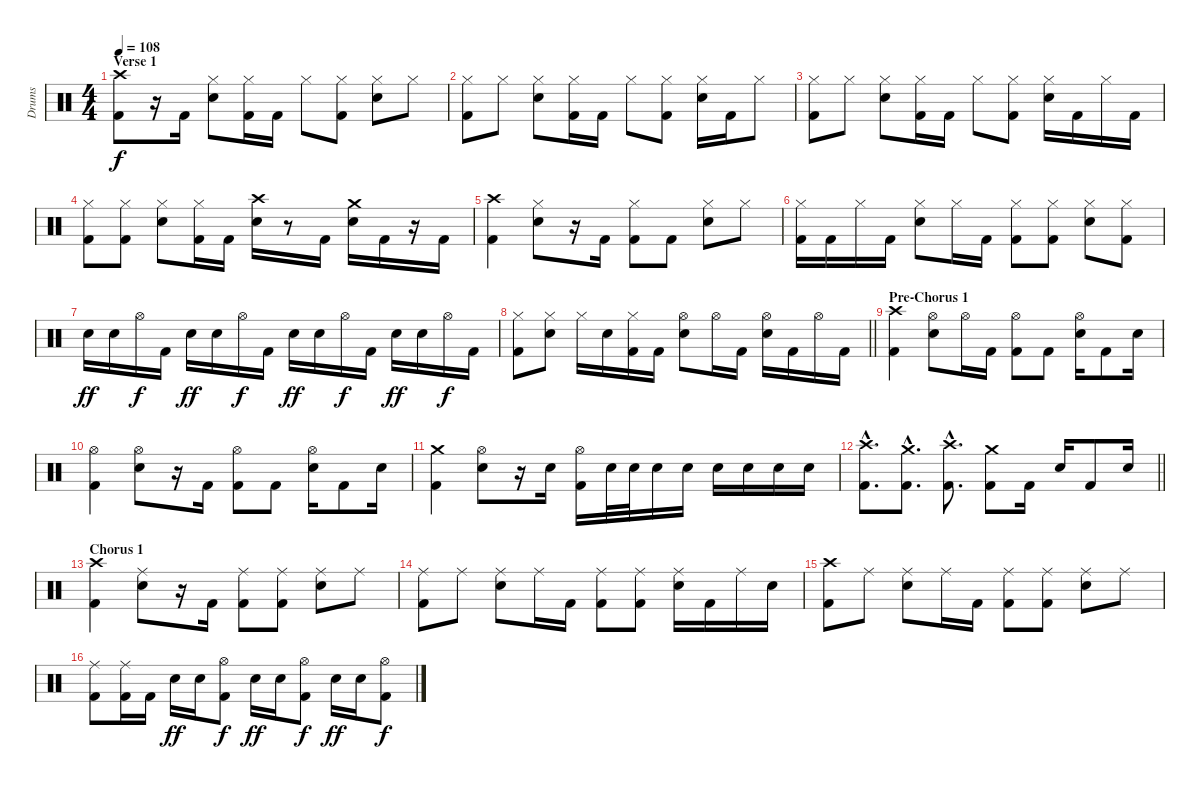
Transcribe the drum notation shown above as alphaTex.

\track ("Drums" "Drums") {instrument percussion}
\staff {score}
\articulation defaults
\ts (4 4)
\section ("" "Verse 1")
\tempo 108
\clef neutral
\ks c
("Crash high (hit)" "Kick (hit) 2").8{dy f} r.16 "Kick (hit) 2".16 ("Hi-Hat (closed)" "Snare (hit) 2").8 ("Hi-Hat (closed)" "Kick (hit) 2").16 "Kick (hit) 2".16 "Hi-Hat (closed)".8 ("Hi-Hat (closed)" "Kick (hit) 2").8 ("Hi-Hat (closed)" "Snare (hit) 2").8 "Hi-Hat (closed)".8 |
("Hi-Hat (closed)" "Kick (hit) 2").8 "Hi-Hat (closed)".8 ("Hi-Hat (closed)" "Snare (hit) 2").8 ("Hi-Hat (closed)" "Kick (hit) 2").16 "Kick (hit) 2".16 "Hi-Hat (closed)".8 ("Hi-Hat (closed)" "Kick (hit) 2").8 ("Hi-Hat (closed)" "Snare (hit) 2").16 "Kick (hit) 2".16 "Hi-Hat (closed)".8 |
("Hi-Hat (closed)" "Kick (hit) 2").8 "Hi-Hat (closed)".8 ("Hi-Hat (closed)" "Snare (hit) 2").8 ("Hi-Hat (closed)" "Kick (hit) 2").16 "Kick (hit) 2".16 "Hi-Hat (closed)".8 ("Hi-Hat (closed)" "Kick (hit) 2").8 ("Hi-Hat (closed)" "Snare (hit) 2").16 "Kick (hit) 2".16 "Hi-Hat (closed)".16 "Kick (hit) 2".16 |
("Hi-Hat (closed)" "Kick (hit) 2").8 ("Hi-Hat (closed)" "Kick (hit) 2").8 ("Hi-Hat (closed)" "Snare (hit) 2").8 ("Hi-Hat (closed)" "Kick (hit) 2").16 "Kick (hit) 2".16 ("Crash high (hit)" "Snare (hit) 2").16 r.8 "Kick (hit) 2".16 ("Crash medium (hit)" "Snare (hit) 2").16 "Kick (hit) 2".16 r.16 "Kick (hit) 2".16 |
("Crash high (hit)" "Kick (hit) 2").4 ("Hi-Hat (closed)" "Snare (hit) 2").8 r.16 "Kick (hit) 2".16 ("Hi-Hat (closed)" "Kick (hit) 2").8 "Kick (hit) 2".8 ("Hi-Hat (closed)" "Snare (hit) 2").8 "Hi-Hat (closed)".8 |
("Hi-Hat (closed)" "Kick (hit) 2").16 "Kick (hit) 2".16 "Hi-Hat (closed)".16 "Kick (hit) 2".16 ("Hi-Hat (closed)" "Snare (hit) 2").8 "Hi-Hat (closed)".16 "Kick (hit) 2".16 ("Hi-Hat (closed)" "Kick (hit) 2").8 ("Hi-Hat (closed)" "Kick (hit) 2").8 ("Hi-Hat (closed)" "Snare (hit) 2").8 ("Hi-Hat (closed)" "Kick (hit) 2").8 |
"Snare (hit) 2".16{dy ff} "Snare (hit) 2".16 "Hi-Hat (open)".16{dy f} "Kick (hit) 2".16 "Snare (hit) 2".16{dy ff} "Snare (hit) 2".16 "Hi-Hat (open)".16{dy f} "Kick (hit) 2".16 "Snare (hit) 2".16{dy ff} "Snare (hit) 2".16 "Hi-Hat (open)".16{dy f} "Kick (hit) 2".16 "Snare (hit) 2".16{dy ff} "Snare (hit) 2".16 "Hi-Hat (open)".16{dy f} "Kick (hit) 2".16 |
\barLineRight lightlight
("Hi-Hat (closed)" "Kick (hit) 2").8 ("Hi-Hat (closed)" "Snare (hit) 2").8 "Hi-Hat (closed)".16 "Snare (hit) 2".16 ("Hi-Hat (closed)" "Kick (hit) 2").16 "Kick (hit) 2".16 ("Hi-Hat (open)" "Snare (hit) 2").8 "Hi-Hat (open)".16 "Kick (hit) 2".16 ("Hi-Hat (open)" "Electric Snare (hit)").16 "Kick (hit) 2".16 "Hi-Hat (open)".16 "Kick (hit) 2".16 |
\section ("" "Pre-Chorus 1")
("Crash high (hit)" "Kick (hit) 2").4 ("Hi-Hat (open)" "Snare (hit) 2").8 "Hi-Hat (open)".16 "Kick (hit) 2".16 ("Hi-Hat (open)" "Kick (hit) 2").8 "Kick (hit) 2".8 ("Hi-Hat (open)" "Snare (hit) 2").16 "Kick (hit) 2".8 "Snare (hit) 2".16 |
("Hi-Hat (open)" "Kick (hit) 2").4 ("Hi-Hat (open)" "Snare (hit) 2").8 r.16 "Kick (hit) 2".16 ("Hi-Hat (open)" "Kick (hit) 2").8 "Kick (hit) 2".8 ("Hi-Hat (open)" "Snare (hit) 2").16 "Kick (hit) 2".8 "Snare (hit) 2".16 |
("Crash medium (hit)" "Kick (hit) 2").4 ("Hi-Hat (open)" "Snare (hit) 2").8 r.16 "Snare (hit) 2".16 ("Hi-Hat (open)" "Kick (hit) 2").16 "Snare (hit) 2".32 "Snare (hit) 2".32 "Snare (hit) 2".16 "Snare (hit) 2".16 "Snare (hit) 2".16 "Snare (hit) 2".16 "Snare (hit) 2".16 "Snare (hit) 2".16 |
\barLineRight lightlight
("Crash high (hit)"{hac} "Kick (hit) 2"{hac}).8{d} ("Crash medium (hit)"{hac} "Kick (hit) 2"{hac}).8{d} ("Crash high (hit)"{hac} "Kick (hit) 2"{hac}).8{d} ("Crash medium (hit)" "Kick (hit) 2").8 "Kick (hit) 2".16 "Snare (hit) 2".16 "Kick (hit) 2".8 "Snare (hit) 2".16 |
\section ("" "Chorus 1")
("Crash high (hit)" "Kick (hit) 2").4 ("Ride (middle)" "Snare (hit) 2").8 r.16 "Kick (hit) 2".16 ("Ride (middle)" "Kick (hit) 2").8 ("Ride (middle)" "Kick (hit) 2").8 ("Ride (middle)" "Snare (hit) 2").8 "Ride (middle)".8 |
("Ride (middle)" "Kick (hit) 2").8 "Ride (middle)".8 ("Ride (middle)" "Snare (hit) 2").8 "Ride (middle)".16 "Kick (hit) 2".16 ("Ride (middle)" "Kick (hit) 2").8 ("Ride (middle)" "Kick (hit) 2").8 ("Ride (middle)" "Snare (hit) 2").16 "Kick (hit) 2".16 "Ride (middle)".16 "Snare (hit) 2".16 |
("Crash high (hit)" "Kick (hit) 2").8 "Ride (middle)".8 ("Ride (middle)" "Snare (hit) 2").8 "Ride (middle)".16 "Kick (hit) 2".16 ("Ride (middle)" "Kick (hit) 2").8 ("Ride (middle)" "Kick (hit) 2").8 ("Ride (middle)" "Snare (hit) 2").8 "Ride (middle)".8 |
("Ride (middle)" "Kick (hit) 2").8 ("Ride (middle)" "Kick (hit) 2").16 "Kick (hit) 2".16 "Snare (hit) 2".16{dy ff} "Snare (hit) 2".16 ("Hi-Hat (open)" "Kick (hit) 2").8{dy f} "Snare (hit) 2".16{dy ff} "Snare (hit) 2".16 ("Hi-Hat (open)" "Kick (hit) 2").8{dy f} "Snare (hit) 2".16{dy ff} "Snare (hit) 2".16 ("Hi-Hat (open)" "Kick (hit) 2").8{dy f}
